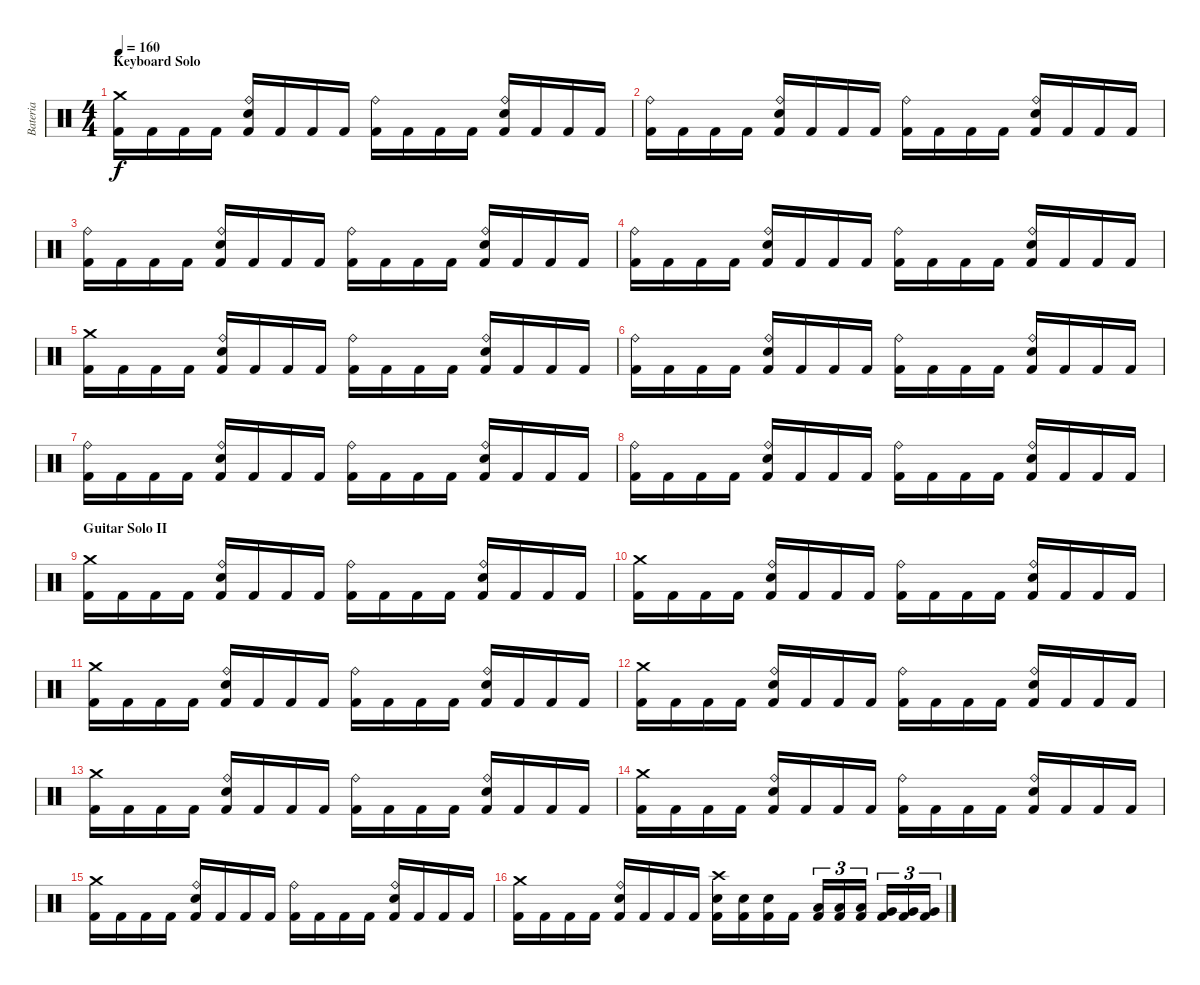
\track ("Bateria" "Bateria") {instrument percussion}
\staff {score}
\articulation defaults
\ts (4 4)
\section ("" "Keyboard Solo")
\tempo 160
\clef neutral
\ks c
("Crash medium (hit)" "Kick (hit) 2").16{dy f} "Kick (hit) 2".16 "Kick (hit) 2".16 "Kick (hit) 2".16 ("Ride (bell)" "Electric Snare (hit)" "Kick (hit) 2").16 "Kick (hit) 2".16 "Kick (hit) 2".16 "Kick (hit) 2".16 ("Ride (bell)" "Kick (hit) 2").16 "Kick (hit) 2".16 "Kick (hit) 2".16 "Kick (hit) 2".16 ("Ride (bell)" "Electric Snare (hit)" "Kick (hit) 2").16 "Kick (hit) 2".16 "Kick (hit) 2".16 "Kick (hit) 2".16 |
("Ride (bell)" "Kick (hit) 2").16 "Kick (hit) 2".16 "Kick (hit) 2".16 "Kick (hit) 2".16 ("Ride (bell)" "Electric Snare (hit)" "Kick (hit) 2").16 "Kick (hit) 2".16 "Kick (hit) 2".16 "Kick (hit) 2".16 ("Ride (bell)" "Kick (hit) 2").16 "Kick (hit) 2".16 "Kick (hit) 2".16 "Kick (hit) 2".16 ("Ride (bell)" "Electric Snare (hit)" "Kick (hit) 2").16 "Kick (hit) 2".16 "Kick (hit) 2".16 "Kick (hit) 2".16 |
("Ride (bell)" "Kick (hit) 2").16 "Kick (hit) 2".16 "Kick (hit) 2".16 "Kick (hit) 2".16 ("Ride (bell)" "Electric Snare (hit)" "Kick (hit) 2").16 "Kick (hit) 2".16 "Kick (hit) 2".16 "Kick (hit) 2".16 ("Ride (bell)" "Kick (hit) 2").16 "Kick (hit) 2".16 "Kick (hit) 2".16 "Kick (hit) 2".16 ("Ride (bell)" "Electric Snare (hit)" "Kick (hit) 2").16 "Kick (hit) 2".16 "Kick (hit) 2".16 "Kick (hit) 2".16 |
("Ride (bell)" "Kick (hit) 2").16 "Kick (hit) 2".16 "Kick (hit) 2".16 "Kick (hit) 2".16 ("Ride (bell)" "Electric Snare (hit)" "Kick (hit) 2").16 "Kick (hit) 2".16 "Kick (hit) 2".16 "Kick (hit) 2".16 ("Ride (bell)" "Kick (hit) 2").16 "Kick (hit) 2".16 "Kick (hit) 2".16 "Kick (hit) 2".16 ("Ride (bell)" "Electric Snare (hit)" "Kick (hit) 2").16 "Kick (hit) 2".16 "Kick (hit) 2".16 "Kick (hit) 2".16 |
("Crash medium (hit)" "Kick (hit) 2").16 "Kick (hit) 2".16 "Kick (hit) 2".16 "Kick (hit) 2".16 ("Ride (bell)" "Electric Snare (hit)" "Kick (hit) 2").16 "Kick (hit) 2".16 "Kick (hit) 2".16 "Kick (hit) 2".16 ("Ride (bell)" "Kick (hit) 2").16 "Kick (hit) 2".16 "Kick (hit) 2".16 "Kick (hit) 2".16 ("Ride (bell)" "Electric Snare (hit)" "Kick (hit) 2").16 "Kick (hit) 2".16 "Kick (hit) 2".16 "Kick (hit) 2".16 |
("Ride (bell)" "Kick (hit) 2").16 "Kick (hit) 2".16 "Kick (hit) 2".16 "Kick (hit) 2".16 ("Ride (bell)" "Electric Snare (hit)" "Kick (hit) 2").16 "Kick (hit) 2".16 "Kick (hit) 2".16 "Kick (hit) 2".16 ("Ride (bell)" "Kick (hit) 2").16 "Kick (hit) 2".16 "Kick (hit) 2".16 "Kick (hit) 2".16 ("Ride (bell)" "Electric Snare (hit)" "Kick (hit) 2").16 "Kick (hit) 2".16 "Kick (hit) 2".16 "Kick (hit) 2".16 |
("Ride (bell)" "Kick (hit) 2").16 "Kick (hit) 2".16 "Kick (hit) 2".16 "Kick (hit) 2".16 ("Ride (bell)" "Electric Snare (hit)" "Kick (hit) 2").16 "Kick (hit) 2".16 "Kick (hit) 2".16 "Kick (hit) 2".16 ("Ride (bell)" "Kick (hit) 2").16 "Kick (hit) 2".16 "Kick (hit) 2".16 "Kick (hit) 2".16 ("Ride (bell)" "Electric Snare (hit)" "Kick (hit) 2").16 "Kick (hit) 2".16 "Kick (hit) 2".16 "Kick (hit) 2".16 |
("Ride (bell)" "Kick (hit) 2").16 "Kick (hit) 2".16 "Kick (hit) 2".16 "Kick (hit) 2".16 ("Ride (bell)" "Electric Snare (hit)" "Kick (hit) 2").16 "Kick (hit) 2".16 "Kick (hit) 2".16 "Kick (hit) 2".16 ("Ride (bell)" "Kick (hit) 2").16 "Kick (hit) 2".16 "Kick (hit) 2".16 "Kick (hit) 2".16 ("Ride (bell)" "Electric Snare (hit)" "Kick (hit) 2").16 "Kick (hit) 2".16 "Kick (hit) 2".16 "Kick (hit) 2".16 |
\section ("" "Guitar Solo II")
("Crash medium (hit)" "Kick (hit) 2").16 "Kick (hit) 2".16 "Kick (hit) 2".16 "Kick (hit) 2".16 ("Ride (bell)" "Electric Snare (hit)" "Kick (hit) 2").16 "Kick (hit) 2".16 "Kick (hit) 2".16 "Kick (hit) 2".16 ("Ride (bell)" "Kick (hit) 2").16 "Kick (hit) 2".16 "Kick (hit) 2".16 "Kick (hit) 2".16 ("Ride (bell)" "Electric Snare (hit)" "Kick (hit) 2").16 "Kick (hit) 2".16 "Kick (hit) 2".16 "Kick (hit) 2".16 |
("Crash medium (hit)" "Kick (hit) 2").16 "Kick (hit) 2".16 "Kick (hit) 2".16 "Kick (hit) 2".16 ("Ride (bell)" "Electric Snare (hit)" "Kick (hit) 2").16 "Kick (hit) 2".16 "Kick (hit) 2".16 "Kick (hit) 2".16 ("Ride (bell)" "Kick (hit) 2").16 "Kick (hit) 2".16 "Kick (hit) 2".16 "Kick (hit) 2".16 ("Ride (bell)" "Electric Snare (hit)" "Kick (hit) 2").16 "Kick (hit) 2".16 "Kick (hit) 2".16 "Kick (hit) 2".16 |
("Crash medium (hit)" "Kick (hit) 2").16 "Kick (hit) 2".16 "Kick (hit) 2".16 "Kick (hit) 2".16 ("Ride (bell)" "Electric Snare (hit)" "Kick (hit) 2").16 "Kick (hit) 2".16 "Kick (hit) 2".16 "Kick (hit) 2".16 ("Ride (bell)" "Kick (hit) 2").16 "Kick (hit) 2".16 "Kick (hit) 2".16 "Kick (hit) 2".16 ("Ride (bell)" "Electric Snare (hit)" "Kick (hit) 2").16 "Kick (hit) 2".16 "Kick (hit) 2".16 "Kick (hit) 2".16 |
("Crash medium (hit)" "Kick (hit) 2").16 "Kick (hit) 2".16 "Kick (hit) 2".16 "Kick (hit) 2".16 ("Ride (bell)" "Electric Snare (hit)" "Kick (hit) 2").16 "Kick (hit) 2".16 "Kick (hit) 2".16 "Kick (hit) 2".16 ("Ride (bell)" "Kick (hit) 2").16 "Kick (hit) 2".16 "Kick (hit) 2".16 "Kick (hit) 2".16 ("Ride (bell)" "Electric Snare (hit)" "Kick (hit) 2").16 "Kick (hit) 2".16 "Kick (hit) 2".16 "Kick (hit) 2".16 |
("Crash medium (hit)" "Kick (hit) 2").16 "Kick (hit) 2".16 "Kick (hit) 2".16 "Kick (hit) 2".16 ("Ride (bell)" "Electric Snare (hit)" "Kick (hit) 2").16 "Kick (hit) 2".16 "Kick (hit) 2".16 "Kick (hit) 2".16 ("Ride (bell)" "Kick (hit) 2").16 "Kick (hit) 2".16 "Kick (hit) 2".16 "Kick (hit) 2".16 ("Ride (bell)" "Electric Snare (hit)" "Kick (hit) 2").16 "Kick (hit) 2".16 "Kick (hit) 2".16 "Kick (hit) 2".16 |
("Crash medium (hit)" "Kick (hit) 2").16 "Kick (hit) 2".16 "Kick (hit) 2".16 "Kick (hit) 2".16 ("Ride (bell)" "Electric Snare (hit)" "Kick (hit) 2").16 "Kick (hit) 2".16 "Kick (hit) 2".16 "Kick (hit) 2".16 ("Ride (bell)" "Kick (hit) 2").16 "Kick (hit) 2".16 "Kick (hit) 2".16 "Kick (hit) 2".16 ("Ride (bell)" "Electric Snare (hit)" "Kick (hit) 2").16 "Kick (hit) 2".16 "Kick (hit) 2".16 "Kick (hit) 2".16 |
("Crash medium (hit)" "Kick (hit) 2").16 "Kick (hit) 2".16 "Kick (hit) 2".16 "Kick (hit) 2".16 ("Ride (bell)" "Electric Snare (hit)" "Kick (hit) 2").16 "Kick (hit) 2".16 "Kick (hit) 2".16 "Kick (hit) 2".16 ("Ride (bell)" "Kick (hit) 2").16 "Kick (hit) 2".16 "Kick (hit) 2".16 "Kick (hit) 2".16 ("Ride (bell)" "Electric Snare (hit)" "Kick (hit) 2").16 "Kick (hit) 2".16 "Kick (hit) 2".16 "Kick (hit) 2".16 |
("Crash medium (hit)" "Kick (hit) 2").16 "Kick (hit) 2".16 "Kick (hit) 2".16 "Kick (hit) 2".16 ("Ride (bell)" "Electric Snare (hit)" "Kick (hit) 2").16 "Kick (hit) 2".16 "Kick (hit) 2".16 "Kick (hit) 2".16 ("Crash high (hit)" "Electric Snare (hit)" "Kick (hit) 2").16 ("Electric Snare (hit)" "Kick (hit) 2").16 ("Electric Snare (hit)" "Kick (hit) 2").16 "Kick (hit) 2".16 ("Low Tom (hit)" "Kick (hit) 2").16{tu (3 2)} ("Low Tom (hit)" "Kick (hit) 2").16{tu (3 2)} ("Low Tom (hit)" "Kick (hit) 2").16{tu (3 2)} ("Very Low Tom (hit)" "Kick (hit) 2").16{tu (3 2)} ("Very Low Tom (hit)" "Kick (hit) 2").16{tu (3 2)} ("Very Low Tom (hit)" "Kick (hit) 2").16{tu (3 2)}
